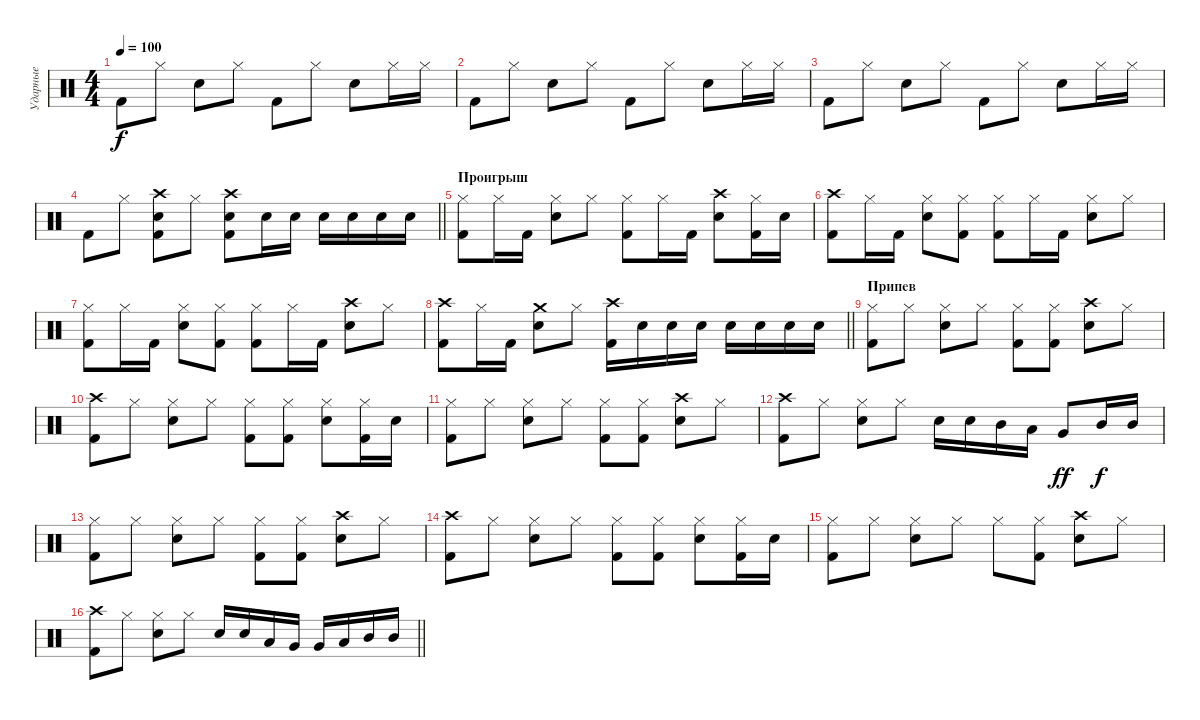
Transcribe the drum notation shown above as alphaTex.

\track ("Ударные" "Ударные") {instrument percussion}
\staff {score}
\articulation defaults
\ts (4 4)
\tempo 100
\clef neutral
\ks c "Kick (hit) 2".8{dy f} "Hi-Hat (closed)".8 "Electric Snare (hit)".8 "Hi-Hat (closed)".8 "Kick (hit) 2".8 "Hi-Hat (closed)".8 "Electric Snare (hit)".8 "Hi-Hat (closed)".16 "Hi-Hat (closed)".16
|
"Kick (hit) 2".8 "Hi-Hat (closed)".8 "Electric Snare (hit)".8 "Hi-Hat (closed)".8 "Kick (hit) 2".8 "Hi-Hat (closed)".8 "Electric Snare (hit)".8 "Hi-Hat (closed)".16 "Hi-Hat (closed)".16 |
"Kick (hit) 2".8 "Hi-Hat (closed)".8 "Electric Snare (hit)".8 "Hi-Hat (closed)".8 "Kick (hit) 2".8 "Hi-Hat (closed)".8 "Electric Snare (hit)".8 "Hi-Hat (closed)".16 "Hi-Hat (closed)".16 |
\barLineRight lightlight "Kick (hit) 2".8 "Hi-Hat (closed)".8
("Crash high (hit)" "Electric Snare (hit)" "Kick (hit) 2").8 "Hi-Hat (closed)".8 ("Crash high (hit)" "Electric Snare (hit)" "Kick (hit) 2").8 "Electric Snare (hit)".16 "Electric Snare (hit)".16 "Electric Snare (hit)".16 "Electric Snare (hit)".16 "Electric Snare (hit)".16 "Electric Snare (hit)".16 |
\section ("" "Проигрыш")
("Hi-Hat (closed)" "Kick (hit) 2").8 "Hi-Hat (closed)".16 "Kick (hit) 2".16 ("Hi-Hat (closed)" "Electric Snare (hit)").8 "Hi-Hat (closed)".8 ("Hi-Hat (closed)" "Kick (hit) 2").8 "Hi-Hat (closed)".16 "Kick (hit) 2".16 ("Crash high (hit)" "Electric Snare (hit)").8 ("Hi-Hat (closed)" "Kick (hit) 2").16 "Electric Snare (hit)".16 |
("Crash high (hit)" "Kick (hit) 2").8 "Hi-Hat (closed)".16 "Kick (hit) 2".16 ("Hi-Hat (closed)" "Electric Snare (hit)").8 ("Hi-Hat (closed)" "Kick (hit) 2").8 ("Hi-Hat (closed)" "Kick (hit) 2").8 "Hi-Hat (closed)".16 "Kick (hit) 2".16 ("Hi-Hat (closed)" "Electric Snare (hit)").8 "Hi-Hat (closed)".8 |
("Hi-Hat (closed)" "Kick (hit) 2").8 "Hi-Hat (closed)".16 "Kick (hit) 2".16 ("Hi-Hat (closed)" "Electric Snare (hit)").8 ("Hi-Hat (closed)" "Kick (hit) 2").8 ("Hi-Hat (closed)" "Kick (hit) 2").8 "Hi-Hat (closed)".16 "Kick (hit) 2".16 ("Crash high (hit)" "Electric Snare (hit)").8 "Hi-Hat (closed)".8 |
\barLineRight lightlight
("Crash high (hit)" "Kick (hit) 2").8 "Hi-Hat (closed)".16 "Kick (hit) 2".16 ("Crash medium (hit)" "Electric Snare (hit)").8 "Hi-Hat (closed)".8 ("Crash high (hit)" "Kick (hit) 2").16 "Electric Snare (hit)".16 "Electric Snare (hit)".16 "Electric Snare (hit)".16 "Electric Snare (hit)".16 "Electric Snare (hit)".16 "Electric Snare (hit)".16 "Electric Snare (hit)".16 |
\section ("" "Припев")
("Hi-Hat (closed)" "Kick (hit) 2").8 "Hi-Hat (closed)".8 ("Hi-Hat (closed)" "Electric Snare (hit)").8 "Hi-Hat (closed)".8 ("Hi-Hat (closed)" "Kick (hit) 2").8 ("Hi-Hat (closed)" "Kick (hit) 2").8 ("Crash high (hit)" "Electric Snare (hit)").8 "Hi-Hat (closed)".8 |
("Crash high (hit)" "Kick (hit) 2").8 "Hi-Hat (closed)".8 ("Hi-Hat (closed)" "Electric Snare (hit)").8 "Hi-Hat (closed)".8 ("Hi-Hat (closed)" "Kick (hit) 2").8 ("Hi-Hat (closed)" "Kick (hit) 2").8 ("Hi-Hat (closed)" "Electric Snare (hit)").8 ("Hi-Hat (closed)" "Kick (hit) 2").16 "Electric Snare (hit)".16 |
("Hi-Hat (closed)" "Kick (hit) 2").8 "Hi-Hat (closed)".8 ("Hi-Hat (closed)" "Electric Snare (hit)").8 "Hi-Hat (closed)".8 ("Hi-Hat (closed)" "Kick (hit) 2").8 ("Hi-Hat (closed)" "Kick (hit) 2").8 ("Crash high (hit)" "Electric Snare (hit)").8 "Hi-Hat (closed)".8 |
("Crash high (hit)" "Kick (hit) 2").8 "Hi-Hat (closed)".8 ("Hi-Hat (closed)" "Electric Snare (hit)").8 "Hi-Hat (closed)".8 "Electric Snare (hit)".16 "Electric Snare (hit)".16 "Mid Tom (hit)".16 "Low Tom (hit)".16 "Very Low Tom (hit)".8{dy ff} "Mid Tom (hit)".16{dy f} "Mid Tom (hit)".16 |
("Hi-Hat (closed)" "Kick (hit) 2").8 "Hi-Hat (closed)".8 ("Hi-Hat (closed)" "Electric Snare (hit)").8 "Hi-Hat (closed)".8 ("Hi-Hat (closed)" "Kick (hit) 2").8 ("Hi-Hat (closed)" "Kick (hit) 2").8 ("Crash high (hit)" "Electric Snare (hit)").8 "Hi-Hat (closed)".8 |
("Crash high (hit)" "Kick (hit) 2").8 "Hi-Hat (closed)".8 ("Hi-Hat (closed)" "Electric Snare (hit)").8 "Hi-Hat (closed)".8 ("Hi-Hat (closed)" "Kick (hit) 2").8 ("Hi-Hat (closed)" "Kick (hit) 2").8 ("Hi-Hat (closed)" "Electric Snare (hit)").8 ("Hi-Hat (closed)" "Kick (hit) 2").16 "Electric Snare (hit)".16 |
("Hi-Hat (closed)" "Kick (hit) 2").8 "Hi-Hat (closed)".8 ("Hi-Hat (closed)" "Electric Snare (hit)").8 "Hi-Hat (closed)".8 "Hi-Hat (closed)".8 ("Hi-Hat (closed)" "Kick (hit) 2").8 ("Crash high (hit)" "Electric Snare (hit)").8 "Hi-Hat (closed)".8 |
\barLineRight lightlight
("Crash high (hit)" "Kick (hit) 2").8 "Hi-Hat (closed)".8 ("Hi-Hat (closed)" "Electric Snare (hit)").8 "Hi-Hat (closed)".8 "Electric Snare (hit)".16 "Electric Snare (hit)".16 "Low Floor Tom (hit)".16 "Very Low Tom (hit)".16 "Very Low Tom (hit)".16 "Low Tom (hit)".16 "Mid Tom (hit)".16 "Mid Tom (hit)".16
